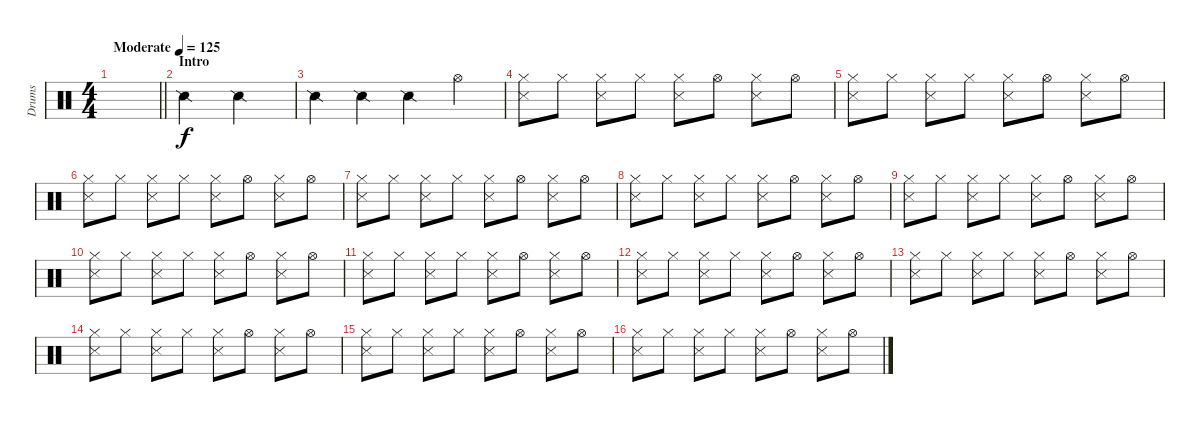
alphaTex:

\track ("Drums" "Drums") {instrument percussion}
\staff {score}
\articulation defaults
\ts (4 4)
\tempo (125 "Moderate")
\clef neutral
\barLineRight lightlight
\ks c
|
\section ("" "Intro")
"Snare (side stick) 2".2{volume 16 balance 8} "Snare (side stick) 2".2 |
"Snare (side stick) 2".4 "Snare (side stick) 2".4 "Snare (side stick) 2".4 "Hi-Hat (open)".4 |
("Hi-Hat (closed)" "Snare (side stick) 3").8 "Hi-Hat (closed)".8 ("Hi-Hat (closed)" "Snare (side stick) 3").8 "Hi-Hat (closed)".8 ("Hi-Hat (closed)" "Snare (side stick) 3").8 "Hi-Hat (open)".8 ("Hi-Hat (closed)" "Snare (side stick) 3").8 "Hi-Hat (open)".8 |
("Hi-Hat (closed)" "Snare (side stick) 3").8 "Hi-Hat (closed)".8 ("Hi-Hat (closed)" "Snare (side stick) 3").8 "Hi-Hat (closed)".8 ("Hi-Hat (closed)" "Snare (side stick) 3").8 "Hi-Hat (open)".8 ("Hi-Hat (closed)" "Snare (side stick) 3").8 "Hi-Hat (open)".8 |
("Hi-Hat (closed)" "Snare (side stick) 3").8 "Hi-Hat (closed)".8 ("Hi-Hat (closed)" "Snare (side stick) 3").8 "Hi-Hat (closed)".8 ("Hi-Hat (closed)" "Snare (side stick) 3").8 "Hi-Hat (open)".8 ("Hi-Hat (closed)" "Snare (side stick) 3").8 "Hi-Hat (open)".8 |
("Hi-Hat (closed)" "Snare (side stick) 3").8 "Hi-Hat (closed)".8 ("Hi-Hat (closed)" "Snare (side stick) 3").8 "Hi-Hat (closed)".8 ("Hi-Hat (closed)" "Snare (side stick) 3").8 "Hi-Hat (open)".8 ("Hi-Hat (closed)" "Snare (side stick) 3").8 "Hi-Hat (open)".8 |
("Hi-Hat (closed)" "Snare (side stick) 3").8 "Hi-Hat (closed)".8 ("Hi-Hat (closed)" "Snare (side stick) 3").8 "Hi-Hat (closed)".8 ("Hi-Hat (closed)" "Snare (side stick) 3").8 "Hi-Hat (open)".8 ("Hi-Hat (closed)" "Snare (side stick) 3").8 "Hi-Hat (open)".8 |
("Hi-Hat (closed)" "Snare (side stick) 3").8 "Hi-Hat (closed)".8 ("Hi-Hat (closed)" "Snare (side stick) 3").8 "Hi-Hat (closed)".8 ("Hi-Hat (closed)" "Snare (side stick) 3").8 "Hi-Hat (open)".8 ("Hi-Hat (closed)" "Snare (side stick) 3").8 "Hi-Hat (open)".8 |
("Hi-Hat (closed)" "Snare (side stick) 3").8 "Hi-Hat (closed)".8 ("Hi-Hat (closed)" "Snare (side stick) 3").8 "Hi-Hat (closed)".8 ("Hi-Hat (closed)" "Snare (side stick) 3").8 "Hi-Hat (open)".8 ("Hi-Hat (closed)" "Snare (side stick) 3").8 "Hi-Hat (open)".8 |
("Hi-Hat (closed)" "Snare (side stick) 3").8 "Hi-Hat (closed)".8 ("Hi-Hat (closed)" "Snare (side stick) 3").8 "Hi-Hat (closed)".8 ("Hi-Hat (closed)" "Snare (side stick) 3").8 "Hi-Hat (open)".8 ("Hi-Hat (closed)" "Snare (side stick) 3").8 "Hi-Hat (open)".8 |
("Hi-Hat (closed)" "Snare (side stick) 3").8 "Hi-Hat (closed)".8 ("Hi-Hat (closed)" "Snare (side stick) 3").8 "Hi-Hat (closed)".8 ("Hi-Hat (closed)" "Snare (side stick) 3").8 "Hi-Hat (open)".8 ("Hi-Hat (closed)" "Snare (side stick) 3").8 "Hi-Hat (open)".8 |
("Hi-Hat (closed)" "Snare (side stick) 3").8 "Hi-Hat (closed)".8 ("Hi-Hat (closed)" "Snare (side stick) 3").8 "Hi-Hat (closed)".8 ("Hi-Hat (closed)" "Snare (side stick) 3").8 "Hi-Hat (open)".8 ("Hi-Hat (closed)" "Snare (side stick) 3").8 "Hi-Hat (open)".8 |
("Hi-Hat (closed)" "Snare (side stick) 3").8 "Hi-Hat (closed)".8 ("Hi-Hat (closed)" "Snare (side stick) 3").8 "Hi-Hat (closed)".8 ("Hi-Hat (closed)" "Snare (side stick) 3").8 "Hi-Hat (open)".8 ("Hi-Hat (closed)" "Snare (side stick) 3").8 "Hi-Hat (open)".8 |
("Hi-Hat (closed)" "Snare (side stick) 3").8 "Hi-Hat (closed)".8 ("Hi-Hat (closed)" "Snare (side stick) 3").8 "Hi-Hat (closed)".8 ("Hi-Hat (closed)" "Snare (side stick) 3").8 "Hi-Hat (open)".8 ("Hi-Hat (closed)" "Snare (side stick) 3").8 "Hi-Hat (open)".8 |
("Hi-Hat (closed)" "Snare (side stick) 3").8 "Hi-Hat (closed)".8 ("Hi-Hat (closed)" "Snare (side stick) 3").8 "Hi-Hat (closed)".8 ("Hi-Hat (closed)" "Snare (side stick) 3").8 "Hi-Hat (open)".8 ("Hi-Hat (closed)" "Snare (side stick) 3").8 "Hi-Hat (open)".8
